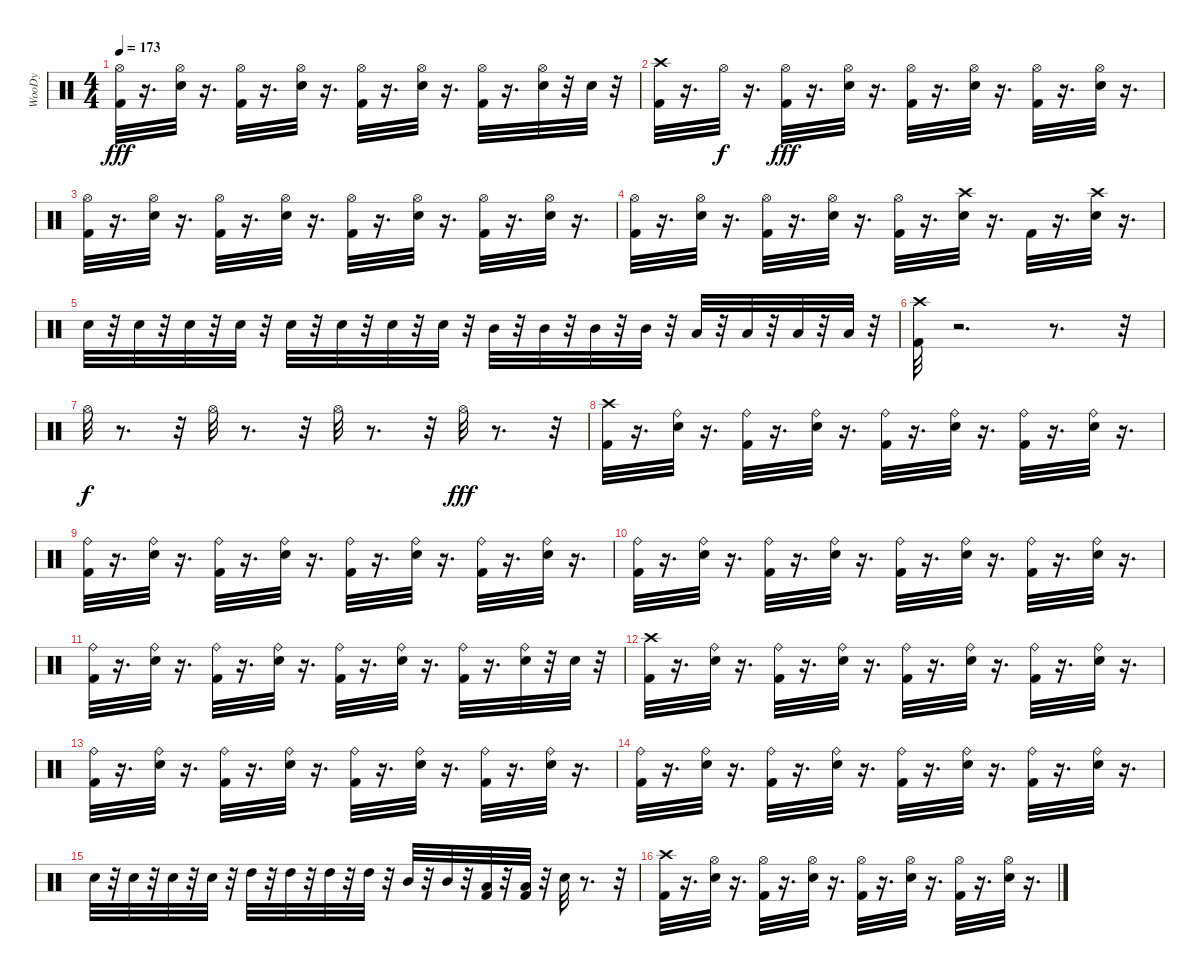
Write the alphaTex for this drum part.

\track ("WooDy" "WooDy") {instrument percussion}
\staff {score}
\articulation defaults
\ts (4 4)
\tempo 173
\clef neutral
\ks c
("Kick (hit) 2" "Hi-Hat (open)").32{dy fff} r.16{d} ("Electric Snare (hit)" "Hi-Hat (open)").32 r.16{d} ("Kick (hit) 2" "Hi-Hat (open)").32 r.16{d} ("Electric Snare (hit)" "Hi-Hat (open)").32 r.16{d} ("Kick (hit) 2" "Hi-Hat (open)").32 r.16{d} ("Electric Snare (hit)" "Hi-Hat (open)").32 r.16{d} ("Kick (hit) 2" "Hi-Hat (open)").32 r.16{d} ("Electric Snare (hit)" "Hi-Hat (open)").32 r.32 "Electric Snare (hit)".32 r.32 |
("Kick (hit) 2" "Crash high (hit)").32 r.16{d} "Hi-Hat (open)".32{dy f} r.16{d} ("Kick (hit) 2" "Hi-Hat (open)").32{dy fff} r.16{d} ("Electric Snare (hit)" "Hi-Hat (open)").32 r.16{d} ("Kick (hit) 2" "Hi-Hat (open)").32 r.16{d} ("Electric Snare (hit)" "Hi-Hat (open)").32 r.16{d} ("Kick (hit) 2" "Hi-Hat (open)").32 r.16{d} ("Electric Snare (hit)" "Hi-Hat (open)").32 r.16{d} |
("Kick (hit) 2" "Hi-Hat (open)").32 r.16{d} ("Electric Snare (hit)" "Hi-Hat (open)").32 r.16{d} ("Kick (hit) 2" "Hi-Hat (open)").32 r.16{d} ("Electric Snare (hit)" "Hi-Hat (open)").32 r.16{d} ("Kick (hit) 2" "Hi-Hat (open)").32 r.16{d} ("Electric Snare (hit)" "Hi-Hat (open)").32 r.16{d} ("Kick (hit) 2" "Hi-Hat (open)").32 r.16{d} ("Electric Snare (hit)" "Hi-Hat (open)").32 r.16{d} |
("Kick (hit) 2" "Hi-Hat (open)").32 r.16{d} ("Electric Snare (hit)" "Hi-Hat (open)").32 r.16{d} ("Kick (hit) 2" "Hi-Hat (open)").32 r.16{d} ("Electric Snare (hit)" "Hi-Hat (open)").32 r.16{d} ("Kick (hit) 2" "Hi-Hat (open)").32 r.16{d} ("Electric Snare (hit)" "Crash high (hit)").32 r.16{d} "Kick (hit) 2".32 r.16{d} ("Electric Snare (hit)" "Crash high (hit)").32 r.16{d} |
"Electric Snare (hit)".32 r.32 "Electric Snare (hit)".32 r.32 "Electric Snare (hit)".32 r.32 "Electric Snare (hit)".32 r.32 "Electric Snare (hit)".32 r.32 "Electric Snare (hit)".32 r.32 "Electric Snare (hit)".32 r.32 "Electric Snare (hit)".32 r.32 "Mid Tom (hit)".32 r.32 "Mid Tom (hit)".32 r.32 "Mid Tom (hit)".32 r.32 "Mid Tom (hit)".32 r.32 "Low Tom (hit)".32 r.32 "Low Tom (hit)".32 r.32 "Low Tom (hit)".32 r.32 "Low Tom (hit)".32 r.32 |
("Kick (hit) 2" "Crash high (hit)").32 r.2{d} r.8{d} r.32 |
"Hi-Hat (open)".32{dy f} r.8{d} r.32 "Hi-Hat (open)".32 r.8{d} r.32 "Hi-Hat (open)".32 r.8{d} r.32 "Hi-Hat (open)".32{dy fff} r.8{d} r.32 |
("Kick (hit) 2" "Crash high (hit)").32 r.16{d} ("Electric Snare (hit)" "Ride (bell)").32 r.16{d} ("Kick (hit) 2" "Ride (bell)").32 r.16{d} ("Electric Snare (hit)" "Ride (bell)").32 r.16{d} ("Kick (hit) 2" "Ride (bell)").32 r.16{d} ("Electric Snare (hit)" "Ride (bell)").32 r.16{d} ("Kick (hit) 2" "Ride (bell)").32 r.16{d} ("Electric Snare (hit)" "Ride (bell)").32 r.16{d} |
("Kick (hit) 2" "Ride (bell)").32 r.16{d} ("Electric Snare (hit)" "Ride (bell)").32 r.16{d} ("Kick (hit) 2" "Ride (bell)").32 r.16{d} ("Electric Snare (hit)" "Ride (bell)").32 r.16{d} ("Kick (hit) 2" "Ride (bell)").32 r.16{d} ("Electric Snare (hit)" "Ride (bell)").32 r.16{d} ("Kick (hit) 2" "Ride (bell)").32 r.16{d} ("Electric Snare (hit)" "Ride (bell)").32 r.16{d} |
("Kick (hit) 2" "Ride (bell)").32 r.16{d} ("Electric Snare (hit)" "Ride (bell)").32 r.16{d} ("Kick (hit) 2" "Ride (bell)").32 r.16{d} ("Electric Snare (hit)" "Ride (bell)").32 r.16{d} ("Kick (hit) 2" "Ride (bell)").32 r.16{d} ("Electric Snare (hit)" "Ride (bell)").32 r.16{d} ("Kick (hit) 2" "Ride (bell)").32 r.16{d} ("Electric Snare (hit)" "Ride (bell)").32 r.16{d} |
("Kick (hit) 2" "Ride (bell)").32 r.16{d} ("Electric Snare (hit)" "Ride (bell)").32 r.16{d} ("Kick (hit) 2" "Ride (bell)").32 r.16{d} ("Electric Snare (hit)" "Ride (bell)").32 r.16{d} ("Kick (hit) 2" "Ride (bell)").32 r.16{d} ("Electric Snare (hit)" "Ride (bell)").32 r.16{d} ("Kick (hit) 2" "Ride (bell)").32 r.16{d} ("Electric Snare (hit)" "Ride (bell)").32 r.32 "Electric Snare (hit)".32 r.32 |
("Kick (hit) 2" "Crash high (hit)").32 r.16{d} ("Electric Snare (hit)" "Ride (bell)").32 r.16{d} ("Kick (hit) 2" "Ride (bell)").32 r.16{d} ("Electric Snare (hit)" "Ride (bell)").32 r.16{d} ("Kick (hit) 2" "Ride (bell)").32 r.16{d} ("Electric Snare (hit)" "Ride (bell)").32 r.16{d} ("Kick (hit) 2" "Ride (bell)").32 r.16{d} ("Electric Snare (hit)" "Ride (bell)").32 r.16{d} |
("Kick (hit) 2" "Ride (bell)").32 r.16{d} ("Electric Snare (hit)" "Ride (bell)").32 r.16{d} ("Kick (hit) 2" "Ride (bell)").32 r.16{d} ("Electric Snare (hit)" "Ride (bell)").32 r.16{d} ("Kick (hit) 2" "Ride (bell)").32 r.16{d} ("Electric Snare (hit)" "Ride (bell)").32 r.16{d} ("Kick (hit) 2" "Ride (bell)").32 r.16{d} ("Electric Snare (hit)" "Ride (bell)").32 r.16{d} |
("Kick (hit) 2" "Ride (bell)").32 r.16{d} ("Electric Snare (hit)" "Ride (bell)").32 r.16{d} ("Kick (hit) 2" "Ride (bell)").32 r.16{d} ("Electric Snare (hit)" "Ride (bell)").32 r.16{d} ("Kick (hit) 2" "Ride (bell)").32 r.16{d} ("Electric Snare (hit)" "Ride (bell)").32 r.16{d} ("Kick (hit) 2" "Ride (bell)").32 r.16{d} ("Electric Snare (hit)" "Ride (bell)").32 r.16{d} |
"Electric Snare (hit)".32 r.32 "Electric Snare (hit)".32 r.32 "Electric Snare (hit)".32 r.32 "Electric Snare (hit)".32 r.32 "High Tom (hit)".32 r.32 "High Tom (hit)".32 r.32 "High Tom (hit)".32 r.32 "High Tom (hit)".32 r.32 "Mid Tom (hit)".32 r.32 "Mid Tom (hit)".32 r.32 ("Kick (hit) 2" "Low Tom (hit)").32 r.32 ("Kick (hit) 2" "Low Tom (hit)").32 r.32 "Electric Snare (hit)".32 r.8{d} r.32 |
("Kick (hit) 2" "Crash high (hit)").32 r.16{d} ("Electric Snare (hit)" "Hi-Hat (open)").32 r.16{d} ("Kick (hit) 2" "Hi-Hat (open)").32 r.16{d} ("Electric Snare (hit)" "Hi-Hat (open)").32 r.16{d} ("Kick (hit) 2" "Hi-Hat (open)").32 r.16{d} ("Electric Snare (hit)" "Hi-Hat (open)").32 r.16{d} ("Kick (hit) 2" "Hi-Hat (open)").32 r.16{d} ("Electric Snare (hit)" "Hi-Hat (open)").32 r.16{d}
